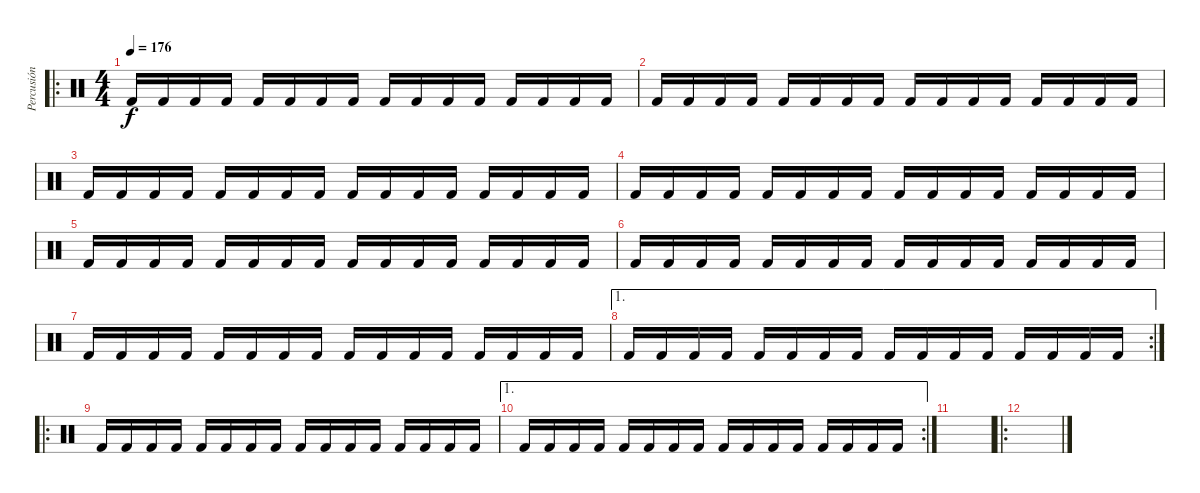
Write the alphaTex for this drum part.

\track ("Percusión" "Percusión") {instrument percussion}
\staff {score}
\articulation defaults
\ro
\ts (4 4)
\tempo 176
\clef neutral
\ks c "Kick (hit) 2".16{dy f} "Kick (hit) 2".16 "Kick (hit) 2".16 "Kick (hit) 2".16 "Kick (hit) 2".16 "Kick (hit) 2".16 "Kick (hit) 2".16 "Kick (hit) 2".16 "Kick (hit) 2".16 "Kick (hit) 2".16 "Kick (hit) 2".16 "Kick (hit) 2".16 "Kick (hit) 2".16 "Kick (hit) 2".16 "Kick (hit) 2".16 "Kick (hit) 2".16
|
"Kick (hit) 2".16 "Kick (hit) 2".16 "Kick (hit) 2".16 "Kick (hit) 2".16 "Kick (hit) 2".16 "Kick (hit) 2".16 "Kick (hit) 2".16 "Kick (hit) 2".16 "Kick (hit) 2".16 "Kick (hit) 2".16 "Kick (hit) 2".16 "Kick (hit) 2".16 "Kick (hit) 2".16 "Kick (hit) 2".16 "Kick (hit) 2".16 "Kick (hit) 2".16 |
"Kick (hit) 2".16 "Kick (hit) 2".16 "Kick (hit) 2".16 "Kick (hit) 2".16 "Kick (hit) 2".16 "Kick (hit) 2".16 "Kick (hit) 2".16 "Kick (hit) 2".16 "Kick (hit) 2".16 "Kick (hit) 2".16 "Kick (hit) 2".16 "Kick (hit) 2".16 "Kick (hit) 2".16 "Kick (hit) 2".16 "Kick (hit) 2".16 "Kick (hit) 2".16 |
"Kick (hit) 2".16 "Kick (hit) 2".16 "Kick (hit) 2".16 "Kick (hit) 2".16 "Kick (hit) 2".16 "Kick (hit) 2".16 "Kick (hit) 2".16 "Kick (hit) 2".16 "Kick (hit) 2".16 "Kick (hit) 2".16 "Kick (hit) 2".16 "Kick (hit) 2".16 "Kick (hit) 2".16 "Kick (hit) 2".16 "Kick (hit) 2".16 "Kick (hit) 2".16 |
"Kick (hit) 2".16 "Kick (hit) 2".16 "Kick (hit) 2".16 "Kick (hit) 2".16 "Kick (hit) 2".16 "Kick (hit) 2".16 "Kick (hit) 2".16 "Kick (hit) 2".16 "Kick (hit) 2".16 "Kick (hit) 2".16 "Kick (hit) 2".16 "Kick (hit) 2".16 "Kick (hit) 2".16 "Kick (hit) 2".16 "Kick (hit) 2".16 "Kick (hit) 2".16 |
"Kick (hit) 2".16 "Kick (hit) 2".16 "Kick (hit) 2".16 "Kick (hit) 2".16 "Kick (hit) 2".16 "Kick (hit) 2".16 "Kick (hit) 2".16 "Kick (hit) 2".16 "Kick (hit) 2".16 "Kick (hit) 2".16 "Kick (hit) 2".16 "Kick (hit) 2".16 "Kick (hit) 2".16 "Kick (hit) 2".16 "Kick (hit) 2".16 "Kick (hit) 2".16 |
"Kick (hit) 2".16 "Kick (hit) 2".16 "Kick (hit) 2".16 "Kick (hit) 2".16 "Kick (hit) 2".16 "Kick (hit) 2".16 "Kick (hit) 2".16 "Kick (hit) 2".16 "Kick (hit) 2".16 "Kick (hit) 2".16 "Kick (hit) 2".16 "Kick (hit) 2".16 "Kick (hit) 2".16 "Kick (hit) 2".16 "Kick (hit) 2".16 "Kick (hit) 2".16 |
\ae 1
\rc 2 "Kick (hit) 2".16 "Kick (hit) 2".16 "Kick (hit) 2".16 "Kick (hit) 2".16 "Kick (hit) 2".16 "Kick (hit) 2".16 "Kick (hit) 2".16 "Kick (hit) 2".16 "Kick (hit) 2".16 "Kick (hit) 2".16 "Kick (hit) 2".16 "Kick (hit) 2".16 "Kick (hit) 2".16 "Kick (hit) 2".16 "Kick (hit) 2".16 "Kick (hit) 2".16
|
\ro "Kick (hit) 2".16 "Kick (hit) 2".16 "Kick (hit) 2".16 "Kick (hit) 2".16 "Kick (hit) 2".16 "Kick (hit) 2".16 "Kick (hit) 2".16 "Kick (hit) 2".16 "Kick (hit) 2".16 "Kick (hit) 2".16 "Kick (hit) 2".16 "Kick (hit) 2".16 "Kick (hit) 2".16 "Kick (hit) 2".16 "Kick (hit) 2".16 "Kick (hit) 2".16
|
\ae 1
\rc 2 "Kick (hit) 2".16 "Kick (hit) 2".16 "Kick (hit) 2".16 "Kick (hit) 2".16 "Kick (hit) 2".16 "Kick (hit) 2".16 "Kick (hit) 2".16 "Kick (hit) 2".16 "Kick (hit) 2".16 "Kick (hit) 2".16 "Kick (hit) 2".16 "Kick (hit) 2".16 "Kick (hit) 2".16 "Kick (hit) 2".16 "Kick (hit) 2".16 "Kick (hit) 2".16
|
|
\ro
